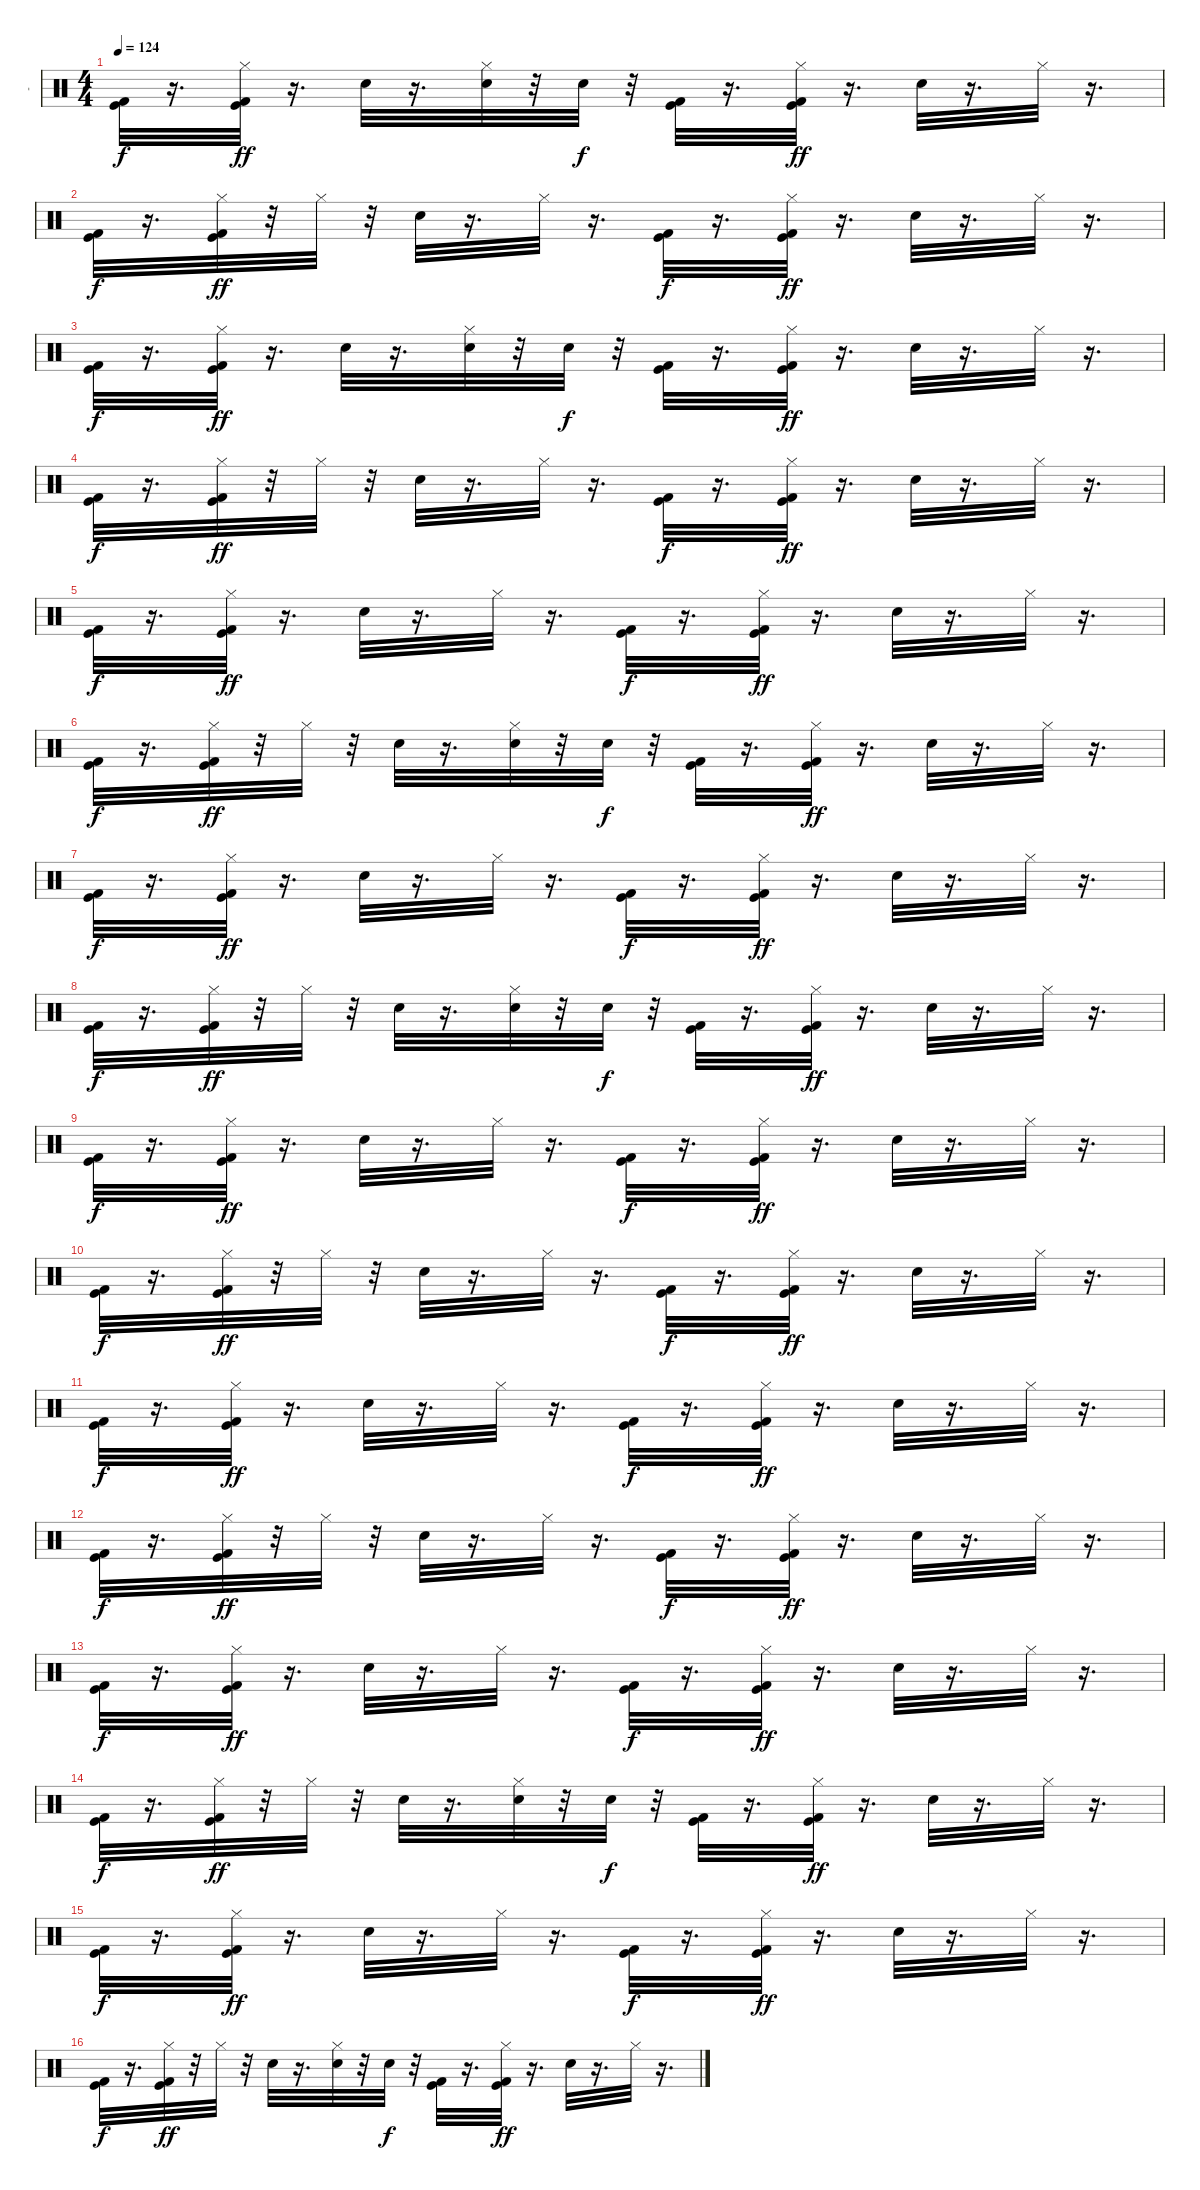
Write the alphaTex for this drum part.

\track ("-" "-") {instrument percussion}
\staff {score}
\articulation defaults
\ts (4 4)
\tempo 124
\clef neutral
\ks c
("Kick (hit)" "Kick (hit) 2").32{dy f} r.16{d} ("Kick (hit)" "Kick (hit) 2" "Hi-Hat (closed)").32{dy ff} r.16{d} "Snare (hit) 2".32 r.16{d} ("Snare (hit) 2" "Hi-Hat (closed)").32 r.32 "Snare (hit) 2".32{dy f} r.32 ("Kick (hit)" "Kick (hit) 2").32 r.16{d} ("Kick (hit)" "Kick (hit) 2" "Hi-Hat (closed)").32{dy ff} r.16{d} "Snare (hit) 2".32 r.16{d} "Hi-Hat (closed)".32 r.16{d} |
("Kick (hit)" "Kick (hit) 2").32{dy f} r.16{d} ("Kick (hit)" "Kick (hit) 2" "Hi-Hat (closed)").32{dy ff} r.32 "Hi-Hat (closed)".32 r.32 "Snare (hit) 2".32 r.16{d} "Hi-Hat (closed)".32 r.16{d} ("Kick (hit)" "Kick (hit) 2").32{dy f} r.16{d} ("Kick (hit)" "Kick (hit) 2" "Hi-Hat (closed)").32{dy ff} r.16{d} "Snare (hit) 2".32 r.16{d} "Hi-Hat (closed)".32 r.16{d} |
("Kick (hit)" "Kick (hit) 2").32{dy f} r.16{d} ("Kick (hit)" "Kick (hit) 2" "Hi-Hat (closed)").32{dy ff} r.16{d} "Snare (hit) 2".32 r.16{d} ("Snare (hit) 2" "Hi-Hat (closed)").32 r.32 "Snare (hit) 2".32{dy f} r.32 ("Kick (hit)" "Kick (hit) 2").32 r.16{d} ("Kick (hit)" "Kick (hit) 2" "Hi-Hat (closed)").32{dy ff} r.16{d} "Snare (hit) 2".32 r.16{d} "Hi-Hat (closed)".32 r.16{d} |
("Kick (hit)" "Kick (hit) 2").32{dy f} r.16{d} ("Kick (hit)" "Kick (hit) 2" "Hi-Hat (closed)").32{dy ff} r.32 "Hi-Hat (closed)".32 r.32 "Snare (hit) 2".32 r.16{d} "Hi-Hat (closed)".32 r.16{d} ("Kick (hit)" "Kick (hit) 2").32{dy f} r.16{d} ("Kick (hit)" "Kick (hit) 2" "Hi-Hat (closed)").32{dy ff} r.16{d} "Snare (hit) 2".32 r.16{d} "Hi-Hat (closed)".32 r.16{d} |
("Kick (hit)" "Kick (hit) 2").32{dy f} r.16{d} ("Kick (hit)" "Kick (hit) 2" "Hi-Hat (closed)").32{dy ff} r.16{d} "Snare (hit) 2".32 r.16{d} "Hi-Hat (closed)".32 r.16{d} ("Kick (hit)" "Kick (hit) 2").32{dy f} r.16{d} ("Kick (hit)" "Kick (hit) 2" "Hi-Hat (closed)").32{dy ff} r.16{d} "Snare (hit) 2".32 r.16{d} "Hi-Hat (closed)".32 r.16{d} |
("Kick (hit)" "Kick (hit) 2").32{dy f} r.16{d} ("Kick (hit)" "Kick (hit) 2" "Hi-Hat (closed)").32{dy ff} r.32 "Hi-Hat (closed)".32 r.32 "Snare (hit) 2".32 r.16{d} ("Snare (hit) 2" "Hi-Hat (closed)").32 r.32 "Snare (hit) 2".32{dy f} r.32 ("Kick (hit)" "Kick (hit) 2").32 r.16{d} ("Kick (hit)" "Kick (hit) 2" "Hi-Hat (closed)").32{dy ff} r.16{d} "Snare (hit) 2".32 r.16{d} "Hi-Hat (closed)".32 r.16{d} |
("Kick (hit)" "Kick (hit) 2").32{dy f} r.16{d} ("Kick (hit)" "Kick (hit) 2" "Hi-Hat (closed)").32{dy ff} r.16{d} "Snare (hit) 2".32 r.16{d} "Hi-Hat (closed)".32 r.16{d} ("Kick (hit)" "Kick (hit) 2").32{dy f} r.16{d} ("Kick (hit)" "Kick (hit) 2" "Hi-Hat (closed)").32{dy ff} r.16{d} "Snare (hit) 2".32 r.16{d} "Hi-Hat (closed)".32 r.16{d} |
("Kick (hit)" "Kick (hit) 2").32{dy f} r.16{d} ("Kick (hit)" "Kick (hit) 2" "Hi-Hat (closed)").32{dy ff} r.32 "Hi-Hat (closed)".32 r.32 "Snare (hit) 2".32 r.16{d} ("Snare (hit) 2" "Hi-Hat (closed)").32 r.32 "Snare (hit) 2".32{dy f} r.32 ("Kick (hit)" "Kick (hit) 2").32 r.16{d} ("Kick (hit)" "Kick (hit) 2" "Hi-Hat (closed)").32{dy ff} r.16{d} "Snare (hit) 2".32 r.16{d} "Hi-Hat (closed)".32 r.16{d} |
("Kick (hit)" "Kick (hit) 2").32{dy f} r.16{d} ("Kick (hit)" "Kick (hit) 2" "Hi-Hat (closed)").32{dy ff} r.16{d} "Snare (hit) 2".32 r.16{d} "Hi-Hat (closed)".32 r.16{d} ("Kick (hit)" "Kick (hit) 2").32{dy f} r.16{d} ("Kick (hit)" "Kick (hit) 2" "Hi-Hat (closed)").32{dy ff} r.16{d} "Snare (hit) 2".32 r.16{d} "Hi-Hat (closed)".32 r.16{d} |
("Kick (hit)" "Kick (hit) 2").32{dy f} r.16{d} ("Kick (hit)" "Kick (hit) 2" "Hi-Hat (closed)").32{dy ff} r.32 "Hi-Hat (closed)".32 r.32 "Snare (hit) 2".32 r.16{d} "Hi-Hat (closed)".32 r.16{d} ("Kick (hit)" "Kick (hit) 2").32{dy f} r.16{d} ("Kick (hit)" "Kick (hit) 2" "Hi-Hat (closed)").32{dy ff} r.16{d} "Snare (hit) 2".32 r.16{d} "Hi-Hat (closed)".32 r.16{d} |
("Kick (hit)" "Kick (hit) 2").32{dy f} r.16{d} ("Kick (hit)" "Kick (hit) 2" "Hi-Hat (closed)").32{dy ff} r.16{d} "Snare (hit) 2".32 r.16{d} "Hi-Hat (closed)".32 r.16{d} ("Kick (hit)" "Kick (hit) 2").32{dy f} r.16{d} ("Kick (hit)" "Kick (hit) 2" "Hi-Hat (closed)").32{dy ff} r.16{d} "Snare (hit) 2".32 r.16{d} "Hi-Hat (closed)".32 r.16{d} |
("Kick (hit)" "Kick (hit) 2").32{dy f} r.16{d} ("Kick (hit)" "Kick (hit) 2" "Hi-Hat (closed)").32{dy ff} r.32 "Hi-Hat (closed)".32 r.32 "Snare (hit) 2".32 r.16{d} "Hi-Hat (closed)".32 r.16{d} ("Kick (hit)" "Kick (hit) 2").32{dy f} r.16{d} ("Kick (hit)" "Kick (hit) 2" "Hi-Hat (closed)").32{dy ff} r.16{d} "Snare (hit) 2".32 r.16{d} "Hi-Hat (closed)".32 r.16{d} |
("Kick (hit)" "Kick (hit) 2").32{dy f} r.16{d} ("Kick (hit)" "Kick (hit) 2" "Hi-Hat (closed)").32{dy ff} r.16{d} "Snare (hit) 2".32 r.16{d} "Hi-Hat (closed)".32 r.16{d} ("Kick (hit)" "Kick (hit) 2").32{dy f} r.16{d} ("Kick (hit)" "Kick (hit) 2" "Hi-Hat (closed)").32{dy ff} r.16{d} "Snare (hit) 2".32 r.16{d} "Hi-Hat (closed)".32 r.16{d} |
("Kick (hit)" "Kick (hit) 2").32{dy f} r.16{d} ("Kick (hit)" "Kick (hit) 2" "Hi-Hat (closed)").32{dy ff} r.32 "Hi-Hat (closed)".32 r.32 "Snare (hit) 2".32 r.16{d} ("Snare (hit) 2" "Hi-Hat (closed)").32 r.32 "Snare (hit) 2".32{dy f} r.32 ("Kick (hit)" "Kick (hit) 2").32 r.16{d} ("Kick (hit)" "Kick (hit) 2" "Hi-Hat (closed)").32{dy ff} r.16{d} "Snare (hit) 2".32 r.16{d} "Hi-Hat (closed)".32 r.16{d} |
("Kick (hit)" "Kick (hit) 2").32{dy f} r.16{d} ("Kick (hit)" "Kick (hit) 2" "Hi-Hat (closed)").32{dy ff} r.16{d} "Snare (hit) 2".32 r.16{d} "Hi-Hat (closed)".32 r.16{d} ("Kick (hit)" "Kick (hit) 2").32{dy f} r.16{d} ("Kick (hit)" "Kick (hit) 2" "Hi-Hat (closed)").32{dy ff} r.16{d} "Snare (hit) 2".32 r.16{d} "Hi-Hat (closed)".32 r.16{d} |
("Kick (hit)" "Kick (hit) 2").32{dy f} r.16{d} ("Kick (hit)" "Kick (hit) 2" "Hi-Hat (closed)").32{dy ff} r.32 "Hi-Hat (closed)".32 r.32 "Snare (hit) 2".32 r.16{d} ("Snare (hit) 2" "Hi-Hat (closed)").32 r.32 "Snare (hit) 2".32{dy f} r.32 ("Kick (hit)" "Kick (hit) 2").32 r.16{d} ("Kick (hit)" "Kick (hit) 2" "Hi-Hat (closed)").32{dy ff} r.16{d} "Snare (hit) 2".32 r.16{d} "Hi-Hat (closed)".32 r.16{d}
